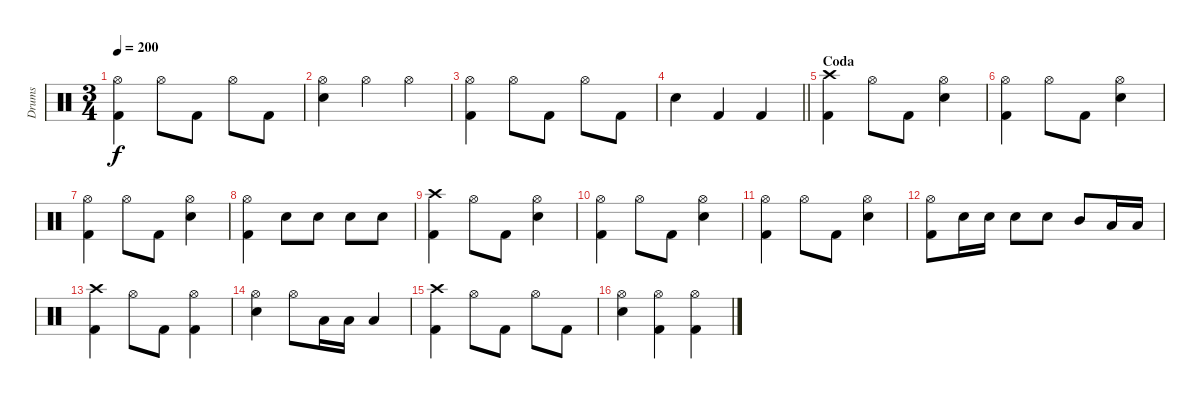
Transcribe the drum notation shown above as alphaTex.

\track ("Drums" "Drums") {instrument percussion}
\staff {score}
\articulation defaults
\ts (3 4)
\tempo 200
\clef neutral
\ks c
("Hi-Hat (open)" "Kick (hit) 2").4{dy f} "Hi-Hat (open)".8 "Kick (hit) 2".8 "Hi-Hat (open)".8 "Kick (hit) 2".8 |
("Hi-Hat (open)" "Electric Snare (hit)").4 "Hi-Hat (open)".4 "Hi-Hat (open)".4 |
("Hi-Hat (open)" "Kick (hit) 2").4 "Hi-Hat (open)".8 "Kick (hit) 2".8 "Hi-Hat (open)".8 "Kick (hit) 2".8 |
\barLineRight lightlight "Electric Snare (hit)".4 "Kick (hit) 2".4 "Kick (hit) 2".4
|
\section ("" "Coda")
("Crash high (hit)" "Kick (hit) 2").4 "Hi-Hat (open)".8 "Kick (hit) 2".8 ("Hi-Hat (open)" "Electric Snare (hit)").4 |
("Hi-Hat (open)" "Kick (hit) 2").4 "Hi-Hat (open)".8 "Kick (hit) 2".8 ("Hi-Hat (open)" "Electric Snare (hit)").4 |
("Hi-Hat (open)" "Kick (hit) 2").4 "Hi-Hat (open)".8 "Kick (hit) 2".8 ("Hi-Hat (open)" "Electric Snare (hit)").4 |
("Hi-Hat (open)" "Kick (hit) 2").4 "Electric Snare (hit)".8 "Electric Snare (hit)".8 "Snare (hit) 2".8 "Snare (hit) 2".8 |
("Crash high (hit)" "Kick (hit) 2").4 "Hi-Hat (open)".8 "Kick (hit) 2".8 ("Hi-Hat (open)" "Electric Snare (hit)").4 |
("Hi-Hat (open)" "Kick (hit) 2").4 "Hi-Hat (open)".8 "Kick (hit) 2".8 ("Hi-Hat (open)" "Electric Snare (hit)").4 |
("Hi-Hat (open)" "Kick (hit) 2").4 "Hi-Hat (open)".8 "Kick (hit) 2".8 ("Hi-Hat (open)" "Electric Snare (hit)").4 |
("Hi-Hat (open)" "Kick (hit) 2").8 "Electric Snare (hit)".16 "Electric Snare (hit)".16 "Snare (hit) 2".8 "Snare (hit) 2".8 "Mid Tom (hit)".8 "Low Tom (hit)".16 "Low Tom (hit)".16 |
("Crash high (hit)" "Kick (hit) 2").4 "Hi-Hat (open)".8 "Kick (hit) 2".8 ("Hi-Hat (open)" "Kick (hit) 2").4 |
("Hi-Hat (open)" "Electric Snare (hit)").4 "Hi-Hat (open)".8 "Low Floor Tom (hit)".16 "Low Floor Tom (hit)".16 "Low Floor Tom (hit)".4 |
("Crash high (hit)" "Kick (hit) 2").4 "Hi-Hat (open)".8 "Kick (hit) 2".8 "Hi-Hat (open)".8 "Kick (hit) 2".8 |
("Hi-Hat (open)" "Electric Snare (hit)").4 ("Hi-Hat (open)" "Kick (hit) 2").4 ("Hi-Hat (open)" "Kick (hit) 2").4
